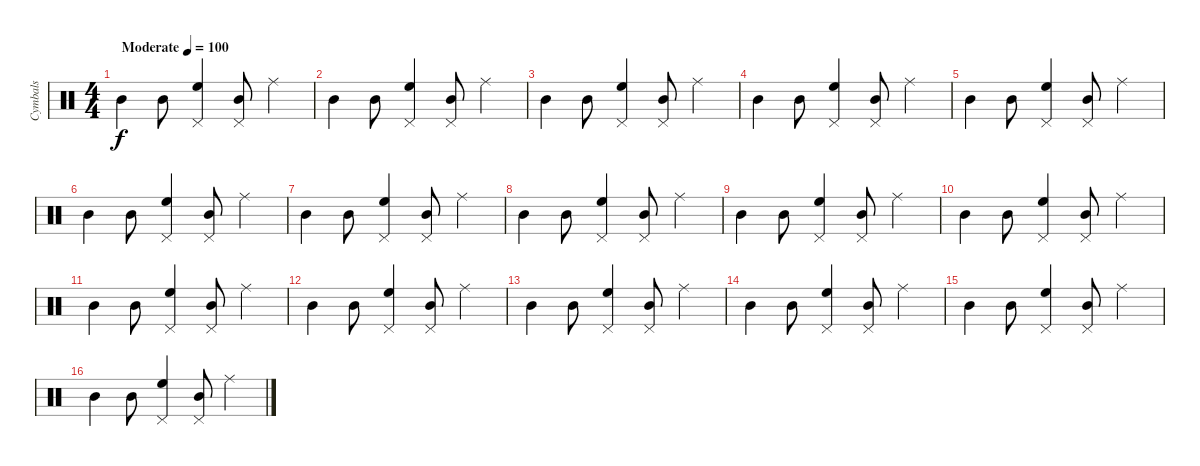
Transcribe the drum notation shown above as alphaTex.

\track ("Cymbals" "Cymbals") {instrument percussion}
\staff {score}
\articulation defaults
\ts (4 4)
\tempo (100 "Moderate")
\clef neutral
\ks c "Mid Tom (hit)".4{dy f} "Mid Tom (hit)".8
("High Floor Tom (hit)" "Pedal Hi-Hat (hit)").4 ("Mid Tom (hit)" "Pedal Hi-Hat (hit)").8 "Ride (middle)".4 |
"Mid Tom (hit)".4 "Mid Tom (hit)".8 ("High Floor Tom (hit)" "Pedal Hi-Hat (hit)").4 ("Mid Tom (hit)" "Pedal Hi-Hat (hit)").8 "Ride (middle)".4 |
"Mid Tom (hit)".4 "Mid Tom (hit)".8 ("High Floor Tom (hit)" "Pedal Hi-Hat (hit)").4 ("Mid Tom (hit)" "Pedal Hi-Hat (hit)").8 "Ride (middle)".4 |
"Mid Tom (hit)".4 "Mid Tom (hit)".8 ("High Floor Tom (hit)" "Pedal Hi-Hat (hit)").4 ("Mid Tom (hit)" "Pedal Hi-Hat (hit)").8 "Ride (middle)".4 |
"Mid Tom (hit)".4 "Mid Tom (hit)".8 ("High Floor Tom (hit)" "Pedal Hi-Hat (hit)").4 ("Mid Tom (hit)" "Pedal Hi-Hat (hit)").8 "Ride (middle)".4 |
"Mid Tom (hit)".4 "Mid Tom (hit)".8 ("High Floor Tom (hit)" "Pedal Hi-Hat (hit)").4 ("Mid Tom (hit)" "Pedal Hi-Hat (hit)").8 "Ride (middle)".4 |
"Mid Tom (hit)".4 "Mid Tom (hit)".8 ("High Floor Tom (hit)" "Pedal Hi-Hat (hit)").4 ("Mid Tom (hit)" "Pedal Hi-Hat (hit)").8 "Ride (middle)".4 |
"Mid Tom (hit)".4 "Mid Tom (hit)".8 ("High Floor Tom (hit)" "Pedal Hi-Hat (hit)").4 ("Mid Tom (hit)" "Pedal Hi-Hat (hit)").8 "Ride (middle)".4 |
"Mid Tom (hit)".4 "Mid Tom (hit)".8 ("High Floor Tom (hit)" "Pedal Hi-Hat (hit)").4 ("Mid Tom (hit)" "Pedal Hi-Hat (hit)").8 "Ride (middle)".4 |
"Mid Tom (hit)".4 "Mid Tom (hit)".8 ("High Floor Tom (hit)" "Pedal Hi-Hat (hit)").4 ("Mid Tom (hit)" "Pedal Hi-Hat (hit)").8 "Ride (middle)".4 |
"Mid Tom (hit)".4 "Mid Tom (hit)".8 ("High Floor Tom (hit)" "Pedal Hi-Hat (hit)").4 ("Mid Tom (hit)" "Pedal Hi-Hat (hit)").8 "Ride (middle)".4 |
"Mid Tom (hit)".4 "Mid Tom (hit)".8 ("High Floor Tom (hit)" "Pedal Hi-Hat (hit)").4 ("Mid Tom (hit)" "Pedal Hi-Hat (hit)").8 "Ride (middle)".4 |
"Mid Tom (hit)".4 "Mid Tom (hit)".8 ("High Floor Tom (hit)" "Pedal Hi-Hat (hit)").4 ("Mid Tom (hit)" "Pedal Hi-Hat (hit)").8 "Ride (middle)".4 |
"Mid Tom (hit)".4 "Mid Tom (hit)".8 ("High Floor Tom (hit)" "Pedal Hi-Hat (hit)").4 ("Mid Tom (hit)" "Pedal Hi-Hat (hit)").8 "Ride (middle)".4 |
"Mid Tom (hit)".4 "Mid Tom (hit)".8 ("High Floor Tom (hit)" "Pedal Hi-Hat (hit)").4 ("Mid Tom (hit)" "Pedal Hi-Hat (hit)").8 "Ride (middle)".4 |
"Mid Tom (hit)".4 "Mid Tom (hit)".8 ("High Floor Tom (hit)" "Pedal Hi-Hat (hit)").4 ("Mid Tom (hit)" "Pedal Hi-Hat (hit)").8 "Ride (middle)".4
